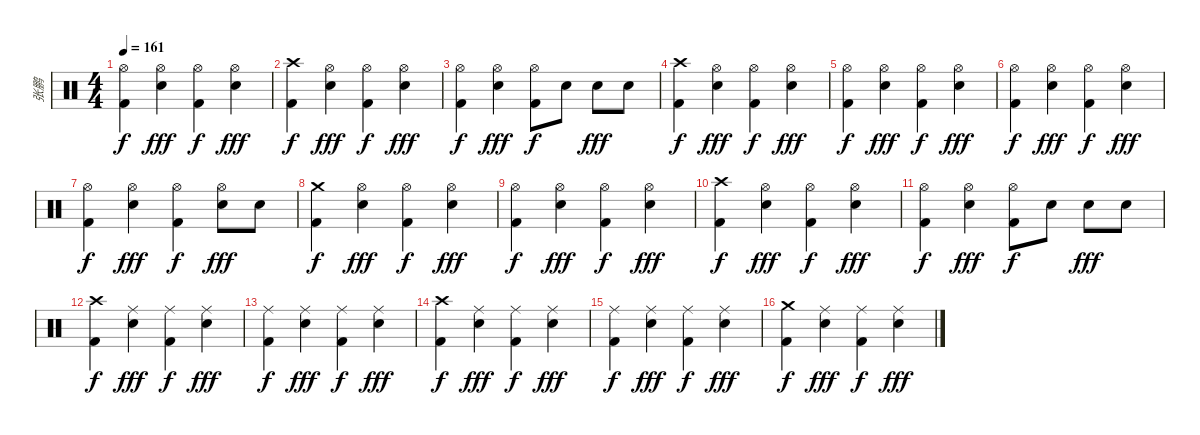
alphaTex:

\track ("张鹏" "张鹏") {instrument percussion}
\staff {score}
\articulation defaults
\ts (4 4)
\tempo 161
\clef neutral
\ks c
("Hi-Hat (open)" "Kick (hit) 2").4{dy f} ("Hi-Hat (open)" "Electric Snare (hit)").4{dy fff} ("Hi-Hat (open)" "Kick (hit) 2").4{dy f} ("Hi-Hat (open)" "Electric Snare (hit)").4{dy fff} |
("Crash high (hit)" "Kick (hit) 2").4{dy f} ("Hi-Hat (open)" "Electric Snare (hit)").4{dy fff} ("Hi-Hat (open)" "Kick (hit) 2").4{dy f} ("Hi-Hat (open)" "Electric Snare (hit)").4{dy fff} |
("Hi-Hat (open)" "Kick (hit) 2").4{dy f} ("Hi-Hat (open)" "Electric Snare (hit)").4{dy fff} ("Hi-Hat (open)" "Kick (hit) 2").8{dy f} "Electric Snare (hit)".8 "Electric Snare (hit)".8{dy fff} "Electric Snare (hit)".8 |
("Crash high (hit)" "Kick (hit) 2").4{dy f} ("Hi-Hat (open)" "Electric Snare (hit)").4{dy fff} ("Hi-Hat (open)" "Kick (hit) 2").4{dy f} ("Hi-Hat (open)" "Electric Snare (hit)").4{dy fff} |
("Hi-Hat (open)" "Kick (hit) 2").4{dy f} ("Hi-Hat (open)" "Electric Snare (hit)").4{dy fff} ("Hi-Hat (open)" "Kick (hit) 2").4{dy f} ("Hi-Hat (open)" "Electric Snare (hit)").4{dy fff} |
("Hi-Hat (open)" "Kick (hit) 2").4{dy f} ("Hi-Hat (open)" "Electric Snare (hit)").4{dy fff} ("Hi-Hat (open)" "Kick (hit) 2").4{dy f} ("Hi-Hat (open)" "Electric Snare (hit)").4{dy fff} |
("Hi-Hat (open)" "Kick (hit) 2").4{dy f} ("Hi-Hat (open)" "Electric Snare (hit)").4{dy fff} ("Hi-Hat (open)" "Kick (hit) 2").4{dy f} ("Hi-Hat (open)" "Electric Snare (hit)").8{dy fff} "Electric Snare (hit)".8 |
("Crash medium (hit)" "Kick (hit) 2").4{dy f} ("Hi-Hat (open)" "Electric Snare (hit)").4{dy fff} ("Hi-Hat (open)" "Kick (hit) 2").4{dy f} ("Hi-Hat (open)" "Electric Snare (hit)").4{dy fff} |
("Hi-Hat (open)" "Kick (hit) 2").4{dy f} ("Hi-Hat (open)" "Electric Snare (hit)").4{dy fff} ("Hi-Hat (open)" "Kick (hit) 2").4{dy f} ("Hi-Hat (open)" "Electric Snare (hit)").4{dy fff} |
("Crash high (hit)" "Kick (hit) 2").4{dy f} ("Hi-Hat (open)" "Electric Snare (hit)").4{dy fff} ("Hi-Hat (open)" "Kick (hit) 2").4{dy f} ("Hi-Hat (open)" "Electric Snare (hit)").4{dy fff} |
("Hi-Hat (open)" "Kick (hit) 2").4{dy f} ("Hi-Hat (open)" "Electric Snare (hit)").4{dy fff} ("Hi-Hat (open)" "Kick (hit) 2").8{dy f} "Electric Snare (hit)".8 "Electric Snare (hit)".8{dy fff} "Electric Snare (hit)".8 |
("Crash high (hit)" "Kick (hit) 2").4{dy f} ("Ride (middle)" "Electric Snare (hit)").4{dy fff} ("Ride (middle)" "Kick (hit) 2").4{dy f} ("Ride (middle)" "Electric Snare (hit)").4{dy fff} |
("Ride (middle)" "Kick (hit) 2").4{dy f} ("Ride (middle)" "Electric Snare (hit)").4{dy fff} ("Ride (middle)" "Kick (hit) 2").4{dy f} ("Ride (middle)" "Electric Snare (hit)").4{dy fff} |
("Crash high (hit)" "Kick (hit) 2").4{dy f} ("Ride (middle)" "Electric Snare (hit)").4{dy fff} ("Ride (middle)" "Kick (hit) 2").4{dy f} ("Ride (middle)" "Electric Snare (hit)").4{dy fff} |
("Ride (middle)" "Kick (hit) 2").4{dy f} ("Ride (middle)" "Electric Snare (hit)").4{dy fff} ("Ride (middle)" "Kick (hit) 2").4{dy f} ("Ride (middle)" "Electric Snare (hit)").4{dy fff} |
("Crash medium (hit)" "Kick (hit) 2").4{dy f} ("Ride (middle)" "Electric Snare (hit)").4{dy fff} ("Ride (middle)" "Kick (hit) 2").4{dy f} ("Ride (middle)" "Electric Snare (hit)").4{dy fff}
